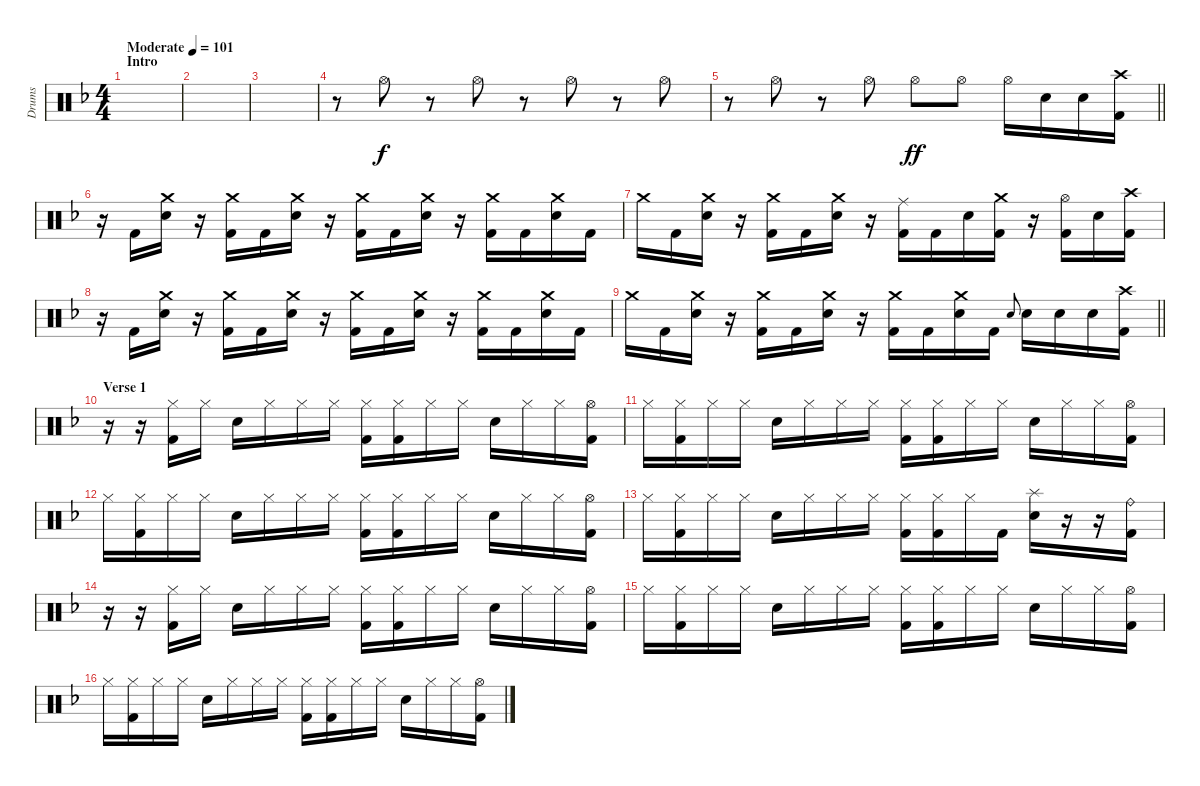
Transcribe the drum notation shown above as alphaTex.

\track ("Drums" "Drums") {instrument percussion}
\staff {score}
\articulation defaults
\ts (4 4)
\section ("" "Intro")
\tempo (101 "Moderate")
\clef neutral
\ks dminor
|
|
|
r.8 "Hi-Hat (open)".8 r.8 "Hi-Hat (open)".8 r.8 "Hi-Hat (open)".8 r.8 "Hi-Hat (open)".8 |
\barLineRight lightlight
r.8 "Hi-Hat (open)".8{dy f} r.8 "Hi-Hat (open)".8 "Hi-Hat (open)".8{dy ff} "Hi-Hat (open)".8 "Hi-Hat (open)".16 "Electric Snare (hit)".16 "Electric Snare (hit)".16 ("Crash high (hit)" "Kick (hit) 2").16 |
r.16 "Kick (hit) 2".16 ("Crash medium (hit)" "Electric Snare (hit)").16 r.16 ("Crash medium (hit)" "Kick (hit) 2").16 "Kick (hit) 2".16 ("Crash medium (hit)" "Electric Snare (hit)").16 r.16 ("Crash medium (hit)" "Kick (hit) 2").16 "Kick (hit) 2".16 ("Crash medium (hit)" "Electric Snare (hit)").16 r.16 ("Crash medium (hit)" "Kick (hit) 2").16 "Kick (hit) 2".16 ("Crash medium (hit)" "Electric Snare (hit)").16 "Kick (hit) 2".16 |
"Crash medium (hit)".16 "Kick (hit) 2".16 ("Crash medium (hit)" "Electric Snare (hit)").16 r.16 ("Crash medium (hit)" "Kick (hit) 2").16 "Kick (hit) 2".16 ("Crash medium (hit)" "Electric Snare (hit)").16 r.16 ("Ride (middle)" "Kick (hit) 2").16 "Kick (hit) 2".16 "Electric Snare (hit)".16 ("Crash medium (hit)" "Kick (hit) 2").16 r.16 ("Hi-Hat (open)" "Kick (hit) 2").16 "Electric Snare (hit)".16 ("Crash high (hit)" "Kick (hit) 2").16 |
r.16 "Kick (hit) 2".16 ("Crash medium (hit)" "Electric Snare (hit)").16 r.16 ("Crash medium (hit)" "Kick (hit) 2").16 "Kick (hit) 2".16 ("Crash medium (hit)" "Electric Snare (hit)").16 r.16 ("Crash medium (hit)" "Kick (hit) 2").16 "Kick (hit) 2".16 ("Crash medium (hit)" "Electric Snare (hit)").16 r.16 ("Crash medium (hit)" "Kick (hit) 2").16 "Kick (hit) 2".16 ("Crash medium (hit)" "Electric Snare (hit)").16 "Kick (hit) 2".16 |
\barLineRight lightlight "Crash medium (hit)".16 "Kick (hit) 2".16
("Crash medium (hit)" "Electric Snare (hit)").16 r.16 ("Crash medium (hit)" "Kick (hit) 2").16 "Kick (hit) 2".16 ("Crash medium (hit)" "Electric Snare (hit)").16 r.16 ("Crash medium (hit)" "Kick (hit) 2").16 "Kick (hit) 2".16 ("Crash medium (hit)" "Electric Snare (hit)").16 "Kick (hit) 2".16 "Electric Snare (hit)".8{gr onbeat} "Electric Snare (hit)".16 "Electric Snare (hit)".16 "Electric Snare (hit)".16 ("Crash high (hit)" "Kick (hit) 2").16 |
\section ("" "Verse 1")
r.16 r.16 ("Hi-Hat (closed)" "Kick (hit) 2").16 "Hi-Hat (closed)".16 "Electric Snare (hit)".16 "Hi-Hat (closed)".16 "Hi-Hat (closed)".16 "Hi-Hat (closed)".16 ("Hi-Hat (closed)" "Kick (hit) 2").16 ("Hi-Hat (closed)" "Kick (hit) 2").16 "Hi-Hat (closed)".16 "Hi-Hat (closed)".16 "Electric Snare (hit)".16 "Hi-Hat (closed)".16 "Hi-Hat (closed)".16 ("Hi-Hat (open)" "Kick (hit) 2").16 |
"Hi-Hat (closed)".16 ("Hi-Hat (closed)" "Kick (hit) 2").16 "Hi-Hat (closed)".16 "Hi-Hat (closed)".16 "Electric Snare (hit)".16 "Hi-Hat (closed)".16 "Hi-Hat (closed)".16 "Hi-Hat (closed)".16 ("Hi-Hat (closed)" "Kick (hit) 2").16 ("Hi-Hat (closed)" "Kick (hit) 2").16 "Hi-Hat (closed)".16 "Hi-Hat (closed)".16 "Electric Snare (hit)".16 "Hi-Hat (closed)".16 "Hi-Hat (closed)".16 ("Hi-Hat (open)" "Kick (hit) 2").16 |
"Hi-Hat (closed)".16 ("Hi-Hat (closed)" "Kick (hit) 2").16 "Hi-Hat (closed)".16 "Hi-Hat (closed)".16 "Electric Snare (hit)".16 "Hi-Hat (closed)".16 "Hi-Hat (closed)".16 "Hi-Hat (closed)".16 ("Hi-Hat (closed)" "Kick (hit) 2").16 ("Hi-Hat (closed)" "Kick (hit) 2").16 "Hi-Hat (closed)".16 "Hi-Hat (closed)".16 "Electric Snare (hit)".16 "Hi-Hat (closed)".16 "Hi-Hat (closed)".16 ("Hi-Hat (open)" "Kick (hit) 2").16 |
"Hi-Hat (closed)".16 ("Hi-Hat (closed)" "Kick (hit) 2").16 "Hi-Hat (closed)".16 "Hi-Hat (closed)".16 "Electric Snare (hit)".16 "Hi-Hat (closed)".16 "Hi-Hat (closed)".16 "Hi-Hat (closed)".16 ("Hi-Hat (closed)" "Kick (hit) 2").16 ("Hi-Hat (closed)" "Kick (hit) 2").16 "Hi-Hat (closed)".16 "Kick (hit) 2".16 ("Splash (hit)" "Electric Snare (hit)").16 r.16 r.16 ("Ride (bell)" "Kick (hit) 2").16 |
r.16 r.16 ("Hi-Hat (closed)" "Kick (hit) 2").16 "Hi-Hat (closed)".16 "Electric Snare (hit)".16 "Hi-Hat (closed)".16 "Hi-Hat (closed)".16 "Hi-Hat (closed)".16 ("Hi-Hat (closed)" "Kick (hit) 2").16 ("Hi-Hat (closed)" "Kick (hit) 2").16 "Hi-Hat (closed)".16 "Hi-Hat (closed)".16 "Electric Snare (hit)".16 "Hi-Hat (closed)".16 "Hi-Hat (closed)".16 ("Hi-Hat (open)" "Kick (hit) 2").16 |
"Hi-Hat (closed)".16 ("Hi-Hat (closed)" "Kick (hit) 2").16 "Hi-Hat (closed)".16 "Hi-Hat (closed)".16 "Electric Snare (hit)".16 "Hi-Hat (closed)".16 "Hi-Hat (closed)".16 "Hi-Hat (closed)".16 ("Hi-Hat (closed)" "Kick (hit) 2").16 ("Hi-Hat (closed)" "Kick (hit) 2").16 "Hi-Hat (closed)".16 "Hi-Hat (closed)".16 "Electric Snare (hit)".16 "Hi-Hat (closed)".16 "Hi-Hat (closed)".16 ("Hi-Hat (open)" "Kick (hit) 2").16 |
"Hi-Hat (closed)".16 ("Hi-Hat (closed)" "Kick (hit) 2").16 "Hi-Hat (closed)".16 "Hi-Hat (closed)".16 "Electric Snare (hit)".16 "Hi-Hat (closed)".16 "Hi-Hat (closed)".16 "Hi-Hat (closed)".16 ("Hi-Hat (closed)" "Kick (hit) 2").16 ("Hi-Hat (closed)" "Kick (hit) 2").16 "Hi-Hat (closed)".16 "Hi-Hat (closed)".16 "Electric Snare (hit)".16 "Hi-Hat (closed)".16 "Hi-Hat (closed)".16 ("Hi-Hat (open)" "Kick (hit) 2").16
